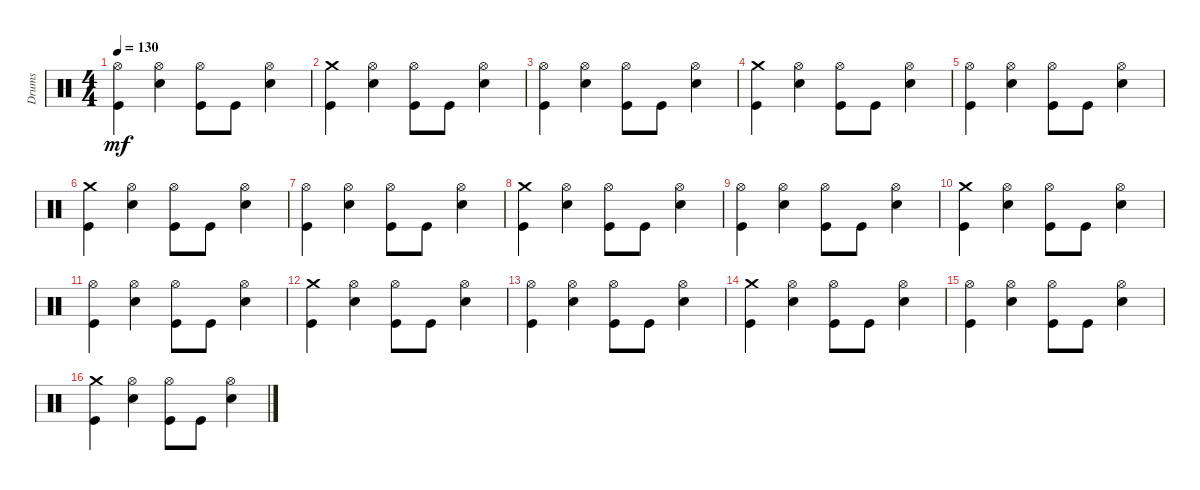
\defaultSystemsLayout 4
\track ("Drumkit" "Drums") {instrument percussion}
\staff {score}
\articulation defaults
\ts (4 4)
\tempo 130
\clef neutral
\ks c
("Hi-Hat (open)" "Kick (hit)").4{dy mf} ("Hi-Hat (open)" "Snare (hit) 2").4 ("Hi-Hat (open)" "Kick (hit)").8 "Kick (hit)".8 ("Hi-Hat (open)" "Snare (hit) 2").4 |
("Kick (hit)" "Crash medium (hit)").4 ("Snare (hit) 2" "Hi-Hat (open)").4 ("Kick (hit)" "Hi-Hat (open)").8 "Kick (hit)".8 ("Snare (hit) 2" "Hi-Hat (open)").4 |
("Hi-Hat (open)" "Kick (hit)").4 ("Hi-Hat (open)" "Snare (hit) 2").4 ("Hi-Hat (open)" "Kick (hit)").8 "Kick (hit)".8 ("Hi-Hat (open)" "Snare (hit) 2").4 |
("Kick (hit)" "Crash medium (hit)").4 ("Snare (hit) 2" "Hi-Hat (open)").4 ("Kick (hit)" "Hi-Hat (open)").8 "Kick (hit)".8 ("Snare (hit) 2" "Hi-Hat (open)").4 |
("Hi-Hat (open)" "Kick (hit)").4 ("Hi-Hat (open)" "Snare (hit) 2").4 ("Hi-Hat (open)" "Kick (hit)").8 "Kick (hit)".8 ("Hi-Hat (open)" "Snare (hit) 2").4 |
("Kick (hit)" "Crash medium (hit)").4 ("Snare (hit) 2" "Hi-Hat (open)").4 ("Kick (hit)" "Hi-Hat (open)").8 "Kick (hit)".8 ("Snare (hit) 2" "Hi-Hat (open)").4 |
("Hi-Hat (open)" "Kick (hit)").4 ("Hi-Hat (open)" "Snare (hit) 2").4 ("Hi-Hat (open)" "Kick (hit)").8 "Kick (hit)".8 ("Hi-Hat (open)" "Snare (hit) 2").4 |
("Kick (hit)" "Crash medium (hit)").4 ("Snare (hit) 2" "Hi-Hat (open)").4 ("Kick (hit)" "Hi-Hat (open)").8 "Kick (hit)".8 ("Snare (hit) 2" "Hi-Hat (open)").4 |
("Hi-Hat (open)" "Kick (hit)").4 ("Hi-Hat (open)" "Snare (hit) 2").4 ("Hi-Hat (open)" "Kick (hit)").8 "Kick (hit)".8 ("Hi-Hat (open)" "Snare (hit) 2").4 |
("Kick (hit)" "Crash medium (hit)").4 ("Snare (hit) 2" "Hi-Hat (open)").4 ("Kick (hit)" "Hi-Hat (open)").8 "Kick (hit)".8 ("Snare (hit) 2" "Hi-Hat (open)").4 |
("Hi-Hat (open)" "Kick (hit)").4 ("Hi-Hat (open)" "Snare (hit) 2").4 ("Hi-Hat (open)" "Kick (hit)").8 "Kick (hit)".8 ("Hi-Hat (open)" "Snare (hit) 2").4 |
("Kick (hit)" "Crash medium (hit)").4 ("Snare (hit) 2" "Hi-Hat (open)").4 ("Kick (hit)" "Hi-Hat (open)").8 "Kick (hit)".8 ("Snare (hit) 2" "Hi-Hat (open)").4 |
("Hi-Hat (open)" "Kick (hit)").4 ("Hi-Hat (open)" "Snare (hit) 2").4 ("Hi-Hat (open)" "Kick (hit)").8 "Kick (hit)".8 ("Hi-Hat (open)" "Snare (hit) 2").4 |
("Kick (hit)" "Crash medium (hit)").4 ("Snare (hit) 2" "Hi-Hat (open)").4 ("Kick (hit)" "Hi-Hat (open)").8 "Kick (hit)".8 ("Snare (hit) 2" "Hi-Hat (open)").4 |
("Hi-Hat (open)" "Kick (hit)").4 ("Hi-Hat (open)" "Snare (hit) 2").4 ("Hi-Hat (open)" "Kick (hit)").8 "Kick (hit)".8 ("Hi-Hat (open)" "Snare (hit) 2").4 |
("Kick (hit)" "Crash medium (hit)").4 ("Snare (hit) 2" "Hi-Hat (open)").4 ("Kick (hit)" "Hi-Hat (open)").8 "Kick (hit)".8 ("Snare (hit) 2" "Hi-Hat (open)").4
